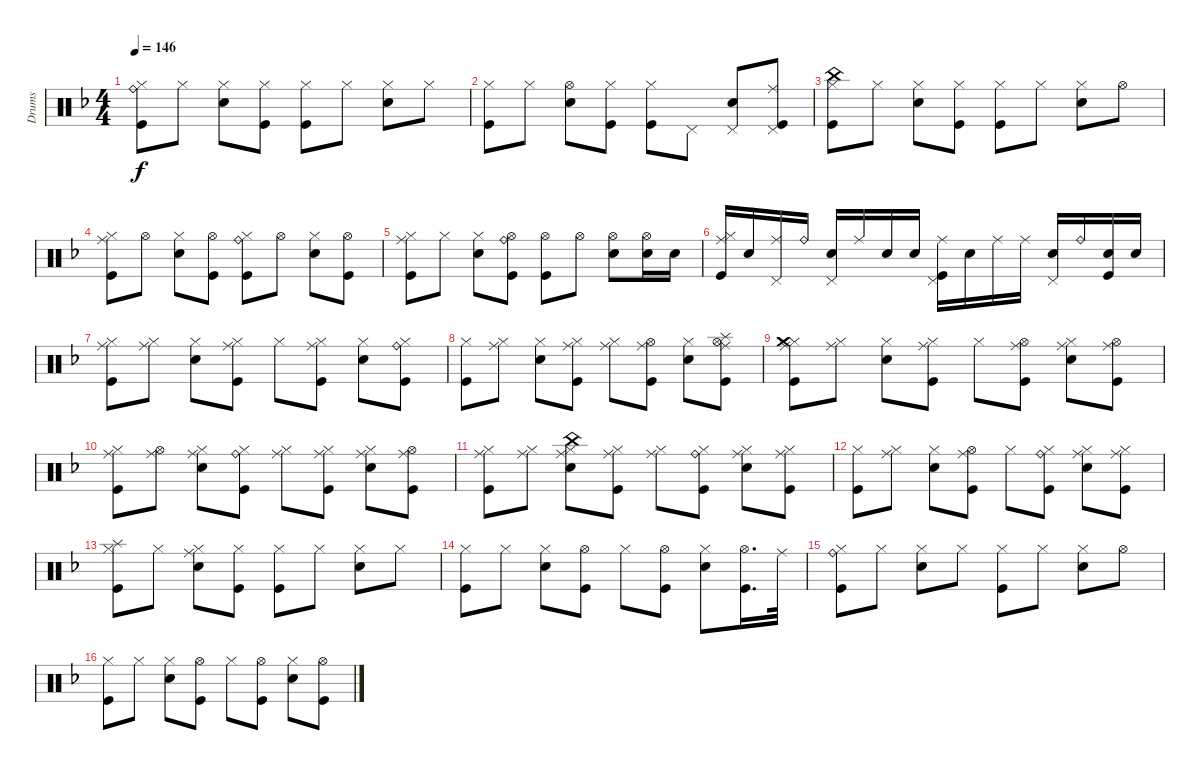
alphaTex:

\track ("Drums" "Drums") {instrument percussion}
\staff {score}
\articulation defaults
\ts (4 4)
\tempo 146
\clef neutral
\ks f
("Kick (hit)" "Hi-Hat (closed)" "Ride (bell)").8{dy f} "Hi-Hat (closed)".8 ("Snare (hit) 2" "Hi-Hat (closed)").8 ("Kick (hit)" "Hi-Hat (closed)").8 ("Kick (hit)" "Hi-Hat (closed)").8 "Hi-Hat (closed)".8 ("Snare (hit) 2" "Hi-Hat (closed)").8 "Hi-Hat (closed)".8 |
("Kick (hit)" "Hi-Hat (closed)").8 "Hi-Hat (closed)".8 ("Snare (hit) 2" "Hi-Hat (open)").8 ("Kick (hit)" "Hi-Hat (closed)").8 ("Kick (hit)" "Hi-Hat (closed)").8 "Pedal Hi-Hat (hit)".8 ("Snare (hit) 2" "Pedal Hi-Hat (hit)").8 ("Pedal Hi-Hat (hit)" "Ride (middle)" "Kick (hit)").8 |
("Kick (hit)" "Hi-Hat (closed)" "China (hit)").8 "Hi-Hat (closed)".8 ("Snare (hit) 2" "Hi-Hat (closed)").8 ("Kick (hit)" "Hi-Hat (closed)").8 ("Kick (hit)" "Hi-Hat (closed)").8 "Hi-Hat (closed)".8 ("Snare (hit) 2" "Hi-Hat (closed)").8 "Hi-Hat (open)".8 |
("Kick (hit)" "Hi-Hat (closed)" "Ride (middle)").8 "Hi-Hat (open)".8 ("Snare (hit) 2" "Hi-Hat (closed)").8 ("Kick (hit)" "Hi-Hat (open)").8 ("Kick (hit)" "Hi-Hat (closed)" "Ride (bell)").8 "Hi-Hat (open)".8 ("Snare (hit) 2" "Hi-Hat (closed)").8 ("Kick (hit)" "Hi-Hat (open)").8 |
("Kick (hit)" "Hi-Hat (closed)" "Ride (middle)").8 "Hi-Hat (closed)".8 ("Snare (hit) 2" "Hi-Hat (closed)").8 ("Kick (hit)" "Hi-Hat (open)" "Ride (bell)").8 ("Kick (hit)" "Hi-Hat (open)").8 "Hi-Hat (open)".8 ("Snare (hit) 2" "Hi-Hat (open)").8 ("Snare (hit) 2" "Hi-Hat (open)").16 "Snare (hit) 2".16 |
("Kick (hit)" "Hi-Hat (closed)" "Ride (middle)").16 "Snare (hit) 2".16 ("Pedal Hi-Hat (hit)" "Ride (middle)").16 "Ride (bell)".16 ("Snare (hit) 2" "Pedal Hi-Hat (hit)").16 "Ride (middle)".16 "Snare (hit) 2".16 "Snare (hit) 2".16 ("Kick (hit)" "Pedal Hi-Hat (hit)" "Ride (middle)").16 "Snare (hit) 2".16 "Ride (middle)".16 "Ride (middle)".16 ("Snare (hit) 2" "Pedal Hi-Hat (hit)").16 "Ride (bell)".16 ("Kick (hit)" "Snare (hit) 2").16 "Snare (hit) 2".16 |
("Kick (hit)" "Hi-Hat (closed)" "Ride (middle)").8 ("Hi-Hat (closed)" "Ride (middle)").8 ("Snare (hit) 2" "Hi-Hat (closed)").8 ("Kick (hit)" "Hi-Hat (closed)" "Ride (middle)").8 "Hi-Hat (closed)".8 ("Kick (hit)" "Hi-Hat (closed)" "Ride (middle)").8 ("Snare (hit) 2" "Hi-Hat (closed)").8 ("Kick (hit)" "Hi-Hat (closed)" "Ride (bell)").8 |
("Kick (hit)" "Hi-Hat (closed)").8 ("Hi-Hat (closed)" "Ride (middle)").8 ("Snare (hit) 2" "Hi-Hat (closed)").8 ("Hi-Hat (closed)" "Ride (middle)" "Kick (hit)").8 ("Hi-Hat (closed)" "Ride (middle)").8 ("Kick (hit)" "Hi-Hat (open)" "Ride (middle)").8 ("Snare (hit) 2" "Hi-Hat (closed)").8 ("Kick (hit)" "Hi-Hat (open)" "Ride (middle)" "Splash (hit)").8 |
("Kick (hit)" "Hi-Hat (closed)" "Ride (middle)" "Crash medium (hit)").8 ("Hi-Hat (closed)" "Ride (middle)").8 ("Snare (hit) 2" "Hi-Hat (closed)").8 ("Ride (middle)" "Kick (hit)" "Hi-Hat (closed)").8 "Hi-Hat (closed)".8 ("Ride (middle)" "Kick (hit)" "Hi-Hat (open)").8 ("Hi-Hat (closed)" "Ride (middle)" "Snare (hit) 2").8 ("Kick (hit)" "Hi-Hat (open)" "Ride (middle)").8 |
("Kick (hit)" "Hi-Hat (closed)" "Ride (middle)").8 ("Hi-Hat (open)" "Ride (middle)").8 ("Hi-Hat (closed)" "Ride (middle)" "Snare (hit) 2").8 ("Kick (hit)" "Hi-Hat (closed)" "Ride (bell)").8 ("Hi-Hat (closed)" "Ride (middle)").8 ("Hi-Hat (closed)" "Ride (middle)" "Kick (hit)").8 ("Snare (hit) 2" "Hi-Hat (closed)" "Ride (middle)").8 ("Kick (hit)" "Hi-Hat (open)" "Ride (middle)").8 |
("Hi-Hat (closed)" "Ride (middle)" "Kick (hit)").8 ("Hi-Hat (closed)" "Ride (middle)").8 ("Hi-Hat (closed)" "China (hit)" "Ride (middle)" "Snare (hit) 2").8 ("Hi-Hat (closed)" "Ride (middle)" "Kick (hit)").8 ("Hi-Hat (closed)" "Ride (middle)").8 ("Ride (bell)" "Kick (hit)" "Hi-Hat (closed)").8 ("Snare (hit) 2" "Hi-Hat (closed)" "Ride (middle)").8 ("Kick (hit)" "Hi-Hat (closed)" "Ride (middle)").8 |
("Kick (hit)" "Hi-Hat (closed)").8 ("Hi-Hat (closed)" "Ride (middle)").8 ("Snare (hit) 2" "Hi-Hat (closed)").8 ("Ride (middle)" "Kick (hit)" "Hi-Hat (open)").8 "Hi-Hat (closed)".8 ("Kick (hit)" "Hi-Hat (closed)" "Ride (bell)").8 ("Snare (hit) 2" "Hi-Hat (closed)" "Ride (middle)").8 ("Kick (hit)" "Hi-Hat (closed)" "Ride (middle)").8 |
("Kick (hit)" "Hi-Hat (closed)" "Splash (hit)").8 "Hi-Hat (closed)".8 ("Ride (middle)" "Snare (hit) 2" "Hi-Hat (closed)").8 ("Kick (hit)" "Hi-Hat (closed)").8 ("Kick (hit)" "Hi-Hat (closed)").8 "Hi-Hat (closed)".8 ("Snare (hit) 2" "Hi-Hat (closed)").8 "Hi-Hat (closed)".8 |
("Kick (hit)" "Hi-Hat (closed)").8 "Hi-Hat (closed)".8 ("Snare (hit) 2" "Hi-Hat (closed)").8 ("Kick (hit)" "Hi-Hat (open)").8 "Hi-Hat (closed)".8 ("Kick (hit)" "Hi-Hat (open)").8 ("Snare (hit) 2" "Hi-Hat (closed)").8 ("Kick (hit)" "Hi-Hat (open)").16{d} "Ride (middle)".32 |
("Kick (hit)" "Hi-Hat (closed)" "Ride (bell)").8 "Hi-Hat (closed)".8 ("Snare (hit) 2" "Hi-Hat (closed)").8 "Hi-Hat (closed)".8 ("Kick (hit)" "Hi-Hat (closed)").8 "Hi-Hat (closed)".8 ("Snare (hit) 2" "Hi-Hat (closed)").8 "Hi-Hat (open)".8 |
("Kick (hit)" "Hi-Hat (closed)").8 "Hi-Hat (closed)".8 ("Snare (hit) 2" "Hi-Hat (closed)").8 ("Kick (hit)" "Hi-Hat (open)").8 "Hi-Hat (closed)".8 ("Kick (hit)" "Hi-Hat (open)").8 ("Snare (hit) 2" "Hi-Hat (closed)").8 ("Kick (hit)" "Hi-Hat (open)").8
